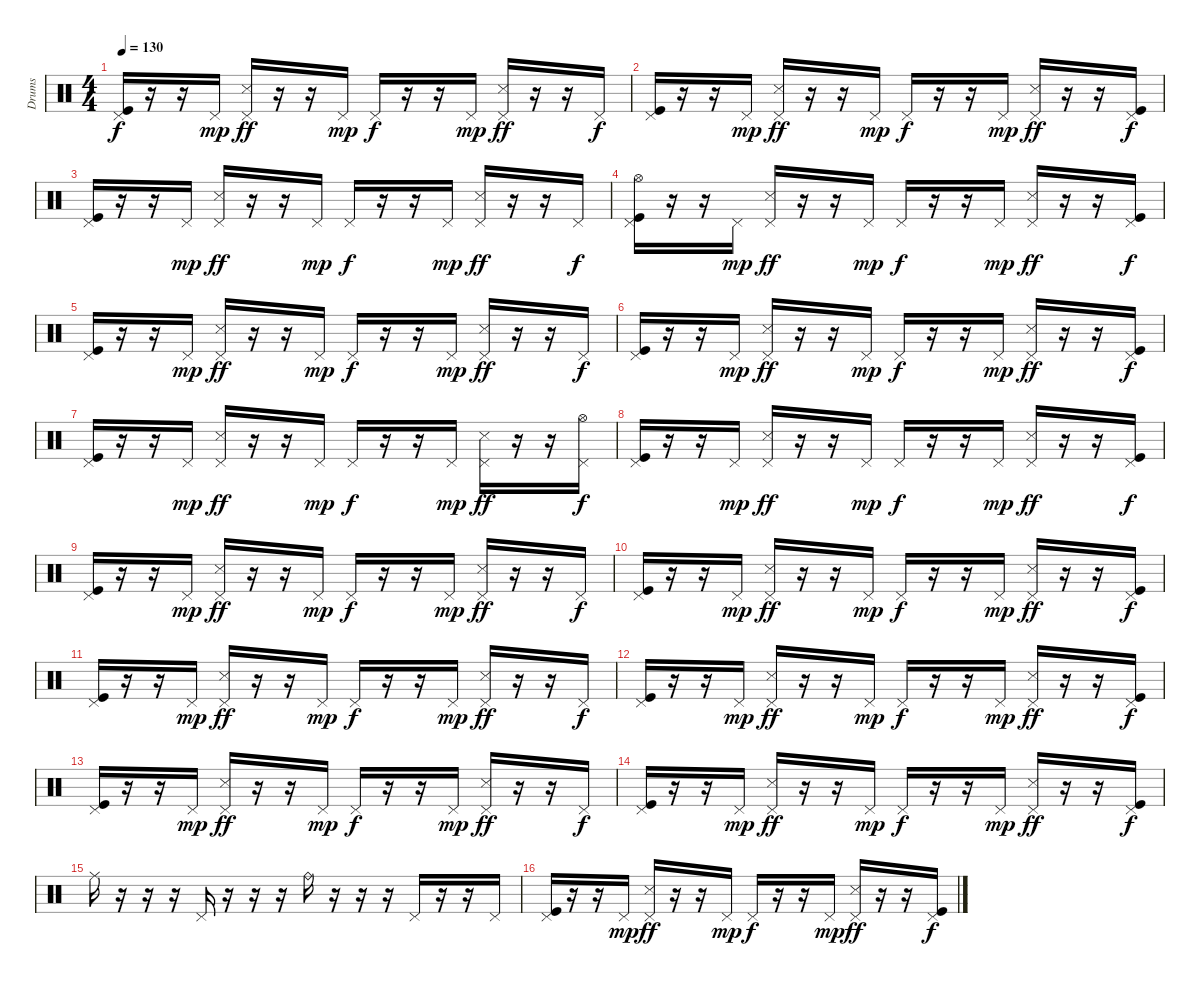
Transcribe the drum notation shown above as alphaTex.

\track ("Drums" "Drums") {instrument percussion}
\staff {score}
\articulation defaults
\ts (4 4)
\tempo 130
\clef neutral
\ks c
("Pedal Hi-Hat (hit)" "Kick (hit)").16{dy f} r.16 r.16 "Pedal Hi-Hat (hit)".16{dy mp} ("Pedal Hi-Hat (hit)" "Snare (side stick) 3").16{dy ff} r.16 r.16 "Pedal Hi-Hat (hit)".16{dy mp} "Pedal Hi-Hat (hit)".16{dy f} r.16 r.16 "Pedal Hi-Hat (hit)".16{dy mp} ("Pedal Hi-Hat (hit)" "Snare (side stick) 3").16{dy ff} r.16 r.16 "Pedal Hi-Hat (hit)".16{dy f} |
("Pedal Hi-Hat (hit)" "Kick (hit)").16 r.16 r.16 "Pedal Hi-Hat (hit)".16{dy mp} ("Pedal Hi-Hat (hit)" "Snare (side stick) 3").16{dy ff} r.16 r.16 "Pedal Hi-Hat (hit)".16{dy mp} "Pedal Hi-Hat (hit)".16{dy f} r.16 r.16 "Pedal Hi-Hat (hit)".16{dy mp} ("Pedal Hi-Hat (hit)" "Snare (side stick) 3").16{dy ff} r.16 r.16 ("Pedal Hi-Hat (hit)" "Kick (hit)").16{dy f} |
("Pedal Hi-Hat (hit)" "Kick (hit)").16 r.16 r.16 "Pedal Hi-Hat (hit)".16{dy mp} ("Pedal Hi-Hat (hit)" "Snare (side stick) 3").16{dy ff} r.16 r.16 "Pedal Hi-Hat (hit)".16{dy mp} "Pedal Hi-Hat (hit)".16{dy f} r.16 r.16 "Pedal Hi-Hat (hit)".16{dy mp} ("Pedal Hi-Hat (hit)" "Snare (side stick) 3").16{dy ff} r.16 r.16 "Pedal Hi-Hat (hit)".16{dy f} |
("Pedal Hi-Hat (hit)" "Hi-Hat (open)" "Kick (hit)").16 r.16 r.16 "Pedal Hi-Hat (hit)".16{dy mp} ("Pedal Hi-Hat (hit)" "Snare (side stick) 3").16{dy ff} r.16 r.16 "Pedal Hi-Hat (hit)".16{dy mp} "Pedal Hi-Hat (hit)".16{dy f} r.16 r.16 "Pedal Hi-Hat (hit)".16{dy mp} ("Pedal Hi-Hat (hit)" "Snare (side stick) 3").16{dy ff} r.16 r.16 ("Pedal Hi-Hat (hit)" "Kick (hit)").16{dy f} |
("Pedal Hi-Hat (hit)" "Kick (hit)").16 r.16 r.16 "Pedal Hi-Hat (hit)".16{dy mp} ("Pedal Hi-Hat (hit)" "Snare (side stick) 3").16{dy ff} r.16 r.16 "Pedal Hi-Hat (hit)".16{dy mp} "Pedal Hi-Hat (hit)".16{dy f} r.16 r.16 "Pedal Hi-Hat (hit)".16{dy mp} ("Pedal Hi-Hat (hit)" "Snare (side stick) 3").16{dy ff} r.16 r.16 "Pedal Hi-Hat (hit)".16{dy f} |
("Pedal Hi-Hat (hit)" "Kick (hit)").16 r.16 r.16 "Pedal Hi-Hat (hit)".16{dy mp} ("Pedal Hi-Hat (hit)" "Snare (side stick) 3").16{dy ff} r.16 r.16 "Pedal Hi-Hat (hit)".16{dy mp} "Pedal Hi-Hat (hit)".16{dy f} r.16 r.16 "Pedal Hi-Hat (hit)".16{dy mp} ("Pedal Hi-Hat (hit)" "Snare (side stick) 3").16{dy ff} r.16 r.16 ("Pedal Hi-Hat (hit)" "Kick (hit)").16{dy f} |
("Pedal Hi-Hat (hit)" "Kick (hit)").16 r.16 r.16 "Pedal Hi-Hat (hit)".16{dy mp} ("Pedal Hi-Hat (hit)" "Snare (side stick) 3").16{dy ff} r.16 r.16 "Pedal Hi-Hat (hit)".16{dy mp} "Pedal Hi-Hat (hit)".16{dy f} r.16 r.16 "Pedal Hi-Hat (hit)".16{dy mp} ("Pedal Hi-Hat (hit)" "Snare (side stick) 3").16{dy ff} r.16 r.16 ("Pedal Hi-Hat (hit)" "Hi-Hat (open)").16{dy f} |
("Pedal Hi-Hat (hit)" "Kick (hit)").16 r.16 r.16 "Pedal Hi-Hat (hit)".16{dy mp} ("Pedal Hi-Hat (hit)" "Snare (side stick) 3").16{dy ff} r.16 r.16 "Pedal Hi-Hat (hit)".16{dy mp} "Pedal Hi-Hat (hit)".16{dy f} r.16 r.16 "Pedal Hi-Hat (hit)".16{dy mp} ("Pedal Hi-Hat (hit)" "Snare (side stick) 3").16{dy ff} r.16 r.16 ("Pedal Hi-Hat (hit)" "Kick (hit)").16{dy f} |
("Pedal Hi-Hat (hit)" "Kick (hit)").16 r.16 r.16 "Pedal Hi-Hat (hit)".16{dy mp} ("Pedal Hi-Hat (hit)" "Snare (side stick) 3").16{dy ff} r.16 r.16 "Pedal Hi-Hat (hit)".16{dy mp} "Pedal Hi-Hat (hit)".16{dy f} r.16 r.16 "Pedal Hi-Hat (hit)".16{dy mp} ("Pedal Hi-Hat (hit)" "Snare (side stick) 3").16{dy ff} r.16 r.16 "Pedal Hi-Hat (hit)".16{dy f} |
("Pedal Hi-Hat (hit)" "Kick (hit)").16 r.16 r.16 "Pedal Hi-Hat (hit)".16{dy mp} ("Pedal Hi-Hat (hit)" "Snare (side stick) 3").16{dy ff} r.16 r.16 "Pedal Hi-Hat (hit)".16{dy mp} "Pedal Hi-Hat (hit)".16{dy f} r.16 r.16 "Pedal Hi-Hat (hit)".16{dy mp} ("Pedal Hi-Hat (hit)" "Snare (side stick) 3").16{dy ff} r.16 r.16 ("Pedal Hi-Hat (hit)" "Kick (hit)").16{dy f} |
("Pedal Hi-Hat (hit)" "Kick (hit)").16 r.16 r.16 "Pedal Hi-Hat (hit)".16{dy mp} ("Pedal Hi-Hat (hit)" "Snare (side stick) 3").16{dy ff} r.16 r.16 "Pedal Hi-Hat (hit)".16{dy mp} "Pedal Hi-Hat (hit)".16{dy f} r.16 r.16 "Pedal Hi-Hat (hit)".16{dy mp} ("Pedal Hi-Hat (hit)" "Snare (side stick) 3").16{dy ff} r.16 r.16 "Pedal Hi-Hat (hit)".16{dy f} |
("Pedal Hi-Hat (hit)" "Kick (hit)").16 r.16 r.16 "Pedal Hi-Hat (hit)".16{dy mp} ("Pedal Hi-Hat (hit)" "Snare (side stick) 3").16{dy ff} r.16 r.16 "Pedal Hi-Hat (hit)".16{dy mp} "Pedal Hi-Hat (hit)".16{dy f} r.16 r.16 "Pedal Hi-Hat (hit)".16{dy mp} ("Pedal Hi-Hat (hit)" "Snare (side stick) 3").16{dy ff} r.16 r.16 ("Pedal Hi-Hat (hit)" "Kick (hit)").16{dy f} |
("Pedal Hi-Hat (hit)" "Kick (hit)").16 r.16 r.16 "Pedal Hi-Hat (hit)".16{dy mp} ("Pedal Hi-Hat (hit)" "Snare (side stick) 3").16{dy ff} r.16 r.16 "Pedal Hi-Hat (hit)".16{dy mp} "Pedal Hi-Hat (hit)".16{dy f} r.16 r.16 "Pedal Hi-Hat (hit)".16{dy mp} ("Pedal Hi-Hat (hit)" "Snare (side stick) 3").16{dy ff} r.16 r.16 "Pedal Hi-Hat (hit)".16{dy f} |
("Pedal Hi-Hat (hit)" "Kick (hit)").16 r.16 r.16 "Pedal Hi-Hat (hit)".16{dy mp} ("Pedal Hi-Hat (hit)" "Snare (side stick) 3").16{dy ff} r.16 r.16 "Pedal Hi-Hat (hit)".16{dy mp} "Pedal Hi-Hat (hit)".16{dy f} r.16 r.16 "Pedal Hi-Hat (hit)".16{dy mp} ("Pedal Hi-Hat (hit)" "Snare (side stick) 3").16{dy ff} r.16 r.16 ("Pedal Hi-Hat (hit)" "Kick (hit)").16{dy f} |
"Ride (middle)".16 r.16 r.16 r.16 "Pedal Hi-Hat (hit)".16 r.16 r.16 r.16 "Ride (bell)".16 r.16 r.16 r.16 "Pedal Hi-Hat (hit)".16 r.16 r.16 "Pedal Hi-Hat (hit)".16 |
("Pedal Hi-Hat (hit)" "Kick (hit)").16 r.16 r.16 "Pedal Hi-Hat (hit)".16{dy mp} ("Pedal Hi-Hat (hit)" "Snare (side stick) 3").16{dy ff} r.16 r.16 "Pedal Hi-Hat (hit)".16{dy mp} "Pedal Hi-Hat (hit)".16{dy f} r.16 r.16 "Pedal Hi-Hat (hit)".16{dy mp} ("Pedal Hi-Hat (hit)" "Snare (side stick) 3").16{dy ff} r.16 r.16 ("Pedal Hi-Hat (hit)" "Kick (hit)").16{dy f}
